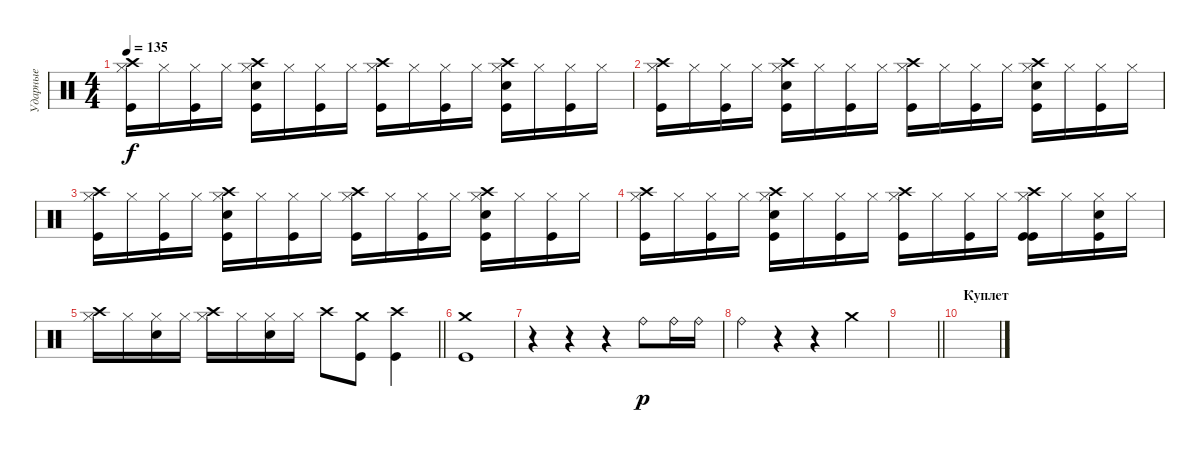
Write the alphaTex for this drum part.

\track ("Ударные" "Ударные") {instrument percussion}
\staff {score}
\articulation defaults
\ts (4 4)
\tempo 135
\clef neutral
\ks c
("Crash high (hit)" "Hi-Hat (closed)" "Kick (hit)").16{dy f} "Hi-Hat (closed)".16 ("Hi-Hat (closed)" "Kick (hit)").16 "Hi-Hat (closed)".16 ("Crash high (hit)" "Hi-Hat (closed)" "Electric Snare (hit)" "Kick (hit)").16 "Hi-Hat (closed)".16 ("Hi-Hat (closed)" "Kick (hit)").16 "Hi-Hat (closed)".16 ("Crash high (hit)" "Hi-Hat (closed)" "Kick (hit)").16 "Hi-Hat (closed)".16 ("Hi-Hat (closed)" "Kick (hit)").16 "Hi-Hat (closed)".16 ("Crash high (hit)" "Hi-Hat (closed)" "Electric Snare (hit)" "Kick (hit)").16 "Hi-Hat (closed)".16 ("Hi-Hat (closed)" "Kick (hit)").16 "Hi-Hat (closed)".16 |
("Crash high (hit)" "Hi-Hat (closed)" "Kick (hit)").16 "Hi-Hat (closed)".16 ("Hi-Hat (closed)" "Kick (hit)").16 "Hi-Hat (closed)".16 ("Crash high (hit)" "Hi-Hat (closed)" "Electric Snare (hit)" "Kick (hit)").16 "Hi-Hat (closed)".16 ("Hi-Hat (closed)" "Kick (hit)").16 "Hi-Hat (closed)".16 ("Crash high (hit)" "Hi-Hat (closed)" "Kick (hit)").16 "Hi-Hat (closed)".16 ("Hi-Hat (closed)" "Kick (hit)").16 "Hi-Hat (closed)".16 ("Crash high (hit)" "Hi-Hat (closed)" "Electric Snare (hit)" "Kick (hit)").16 "Hi-Hat (closed)".16 ("Hi-Hat (closed)" "Kick (hit)").16 "Hi-Hat (closed)".16 |
("Crash high (hit)" "Hi-Hat (closed)" "Kick (hit)").16 "Hi-Hat (closed)".16 ("Hi-Hat (closed)" "Kick (hit)").16 "Hi-Hat (closed)".16 ("Crash high (hit)" "Hi-Hat (closed)" "Electric Snare (hit)" "Kick (hit)").16 "Hi-Hat (closed)".16 ("Hi-Hat (closed)" "Kick (hit)").16 "Hi-Hat (closed)".16 ("Crash high (hit)" "Hi-Hat (closed)" "Kick (hit)").16 "Hi-Hat (closed)".16 ("Hi-Hat (closed)" "Kick (hit)").16 "Hi-Hat (closed)".16 ("Crash high (hit)" "Hi-Hat (closed)" "Electric Snare (hit)" "Kick (hit)").16 "Hi-Hat (closed)".16 ("Hi-Hat (closed)" "Kick (hit)").16 "Hi-Hat (closed)".16 |
("Crash high (hit)" "Hi-Hat (closed)" "Kick (hit)").16 "Hi-Hat (closed)".16 ("Hi-Hat (closed)" "Kick (hit)").16 "Hi-Hat (closed)".16 ("Crash high (hit)" "Hi-Hat (closed)" "Electric Snare (hit)" "Kick (hit)").16 "Hi-Hat (closed)".16 ("Hi-Hat (closed)" "Kick (hit)").16 "Hi-Hat (closed)".16 ("Crash high (hit)" "Hi-Hat (closed)" "Kick (hit)").16 "Hi-Hat (closed)".16 ("Hi-Hat (closed)" "Kick (hit)").16 "Hi-Hat (closed)".16 ("Crash high (hit)" "Hi-Hat (closed)" "Kick (hit)" "Kick (hit)").16 "Hi-Hat (closed)".16 ("Hi-Hat (closed)" "Electric Snare (hit)" "Kick (hit)").16 "Hi-Hat (closed)".16 |
\barLineRight lightlight
("Crash high (hit)" "Hi-Hat (closed)").16 "Hi-Hat (closed)".16 ("Hi-Hat (closed)" "Electric Snare (hit)").16 "Hi-Hat (closed)".16 ("Crash high (hit)" "Hi-Hat (closed)").16 "Hi-Hat (closed)".16 ("Hi-Hat (closed)" "Electric Snare (hit)").16 "Hi-Hat (closed)".16 "Crash high (hit)".8 ("Crash medium (hit)" "Kick (hit)").8 ("Crash high (hit)" "Kick (hit)").4 |
("Crash medium (hit)" "Kick (hit)").1 |
r.4 r.4 r.4 "Ride (bell)".8{dy p} "Ride (bell)".16 "Ride (bell)".16 |
"Ride (bell)".4 r.4 r.4 "Crash medium (hit)".4 |
\barLineRight lightlight
|
\section ("" "Куплет")
